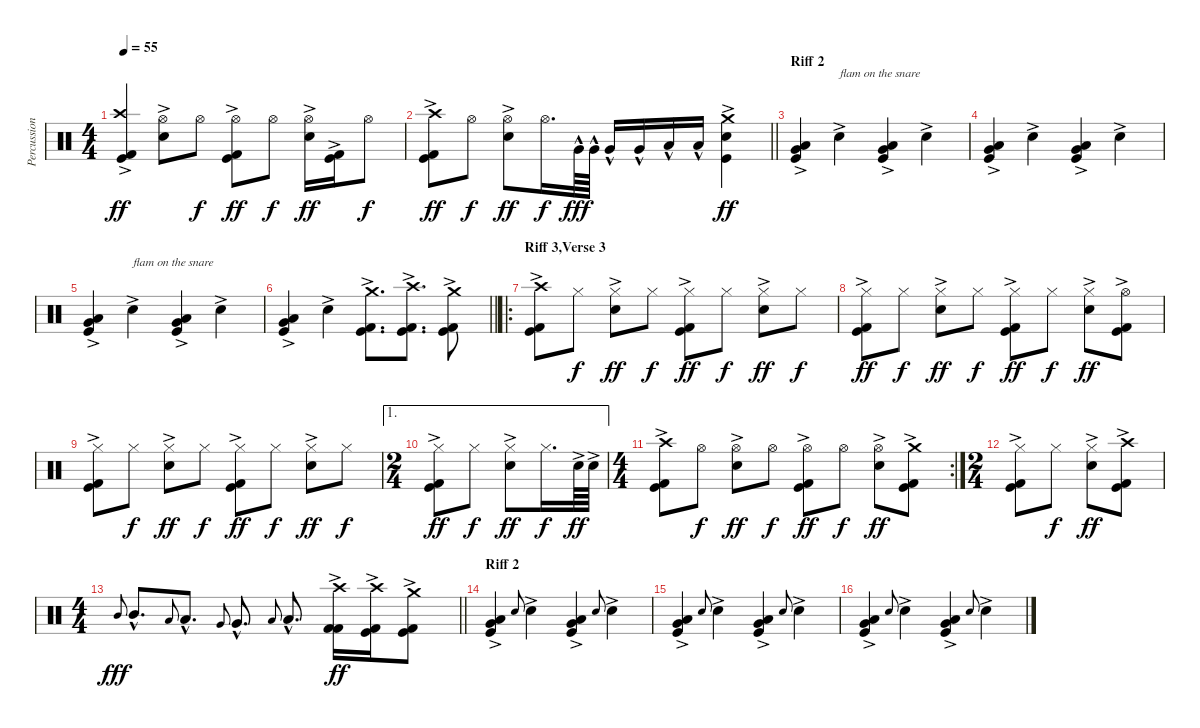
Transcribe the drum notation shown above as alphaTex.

\track ("Percussion" "Percussion") {instrument percussion}
\staff {score}
\articulation defaults
\ts (4 4)
\tempo 55
\clef neutral
\ks c
("Kick (hit)"{ac} "Crash high (hit)" "Kick (hit) 2"{ac}).4{dy ff} ("Snare (hit) 2"{ac} "Hi-Hat (open)").8 "Hi-Hat (open)".8{dy f} ("Kick (hit)"{ac} "Hi-Hat (open)" "Kick (hit) 2"{ac}).8{dy ff} "Hi-Hat (open)".8{dy f} ("Snare (hit) 2"{ac} "Hi-Hat (open)").16{dy ff} ("Kick (hit)"{ac} "Kick (hit) 2"{ac}).16 "Hi-Hat (open)".8{dy f} |
\barLineRight lightlight
("Kick (hit)"{ac} "Crash high (hit)" "Kick (hit) 2"{ac}).8{dy ff} "Hi-Hat (open)".8{dy f} ("Snare (hit) 2"{ac} "Hi-Hat (open)").8{dy ff} "Hi-Hat (open)".16{d dy f} "Very Low Tom (hit)"{hac}.64{dy fff} "Very Low Tom (hit)"{hac}.64 "Very Low Tom (hit)"{hac}.16 "Very Low Tom (hit)"{hac}.16 "Low Tom (hit)"{hac}.16 "Low Tom (hit)"{hac}.16 ("Kick (hit)"{ac} "Crash medium (hit)" "Snare (hit) 2"{ac}).4{dy ff} |
\section ("" "Riff 2")
("Low Floor Tom (hit)"{ac} "Very Low Tom (hit)"{ac} "Kick (hit)"{ac}).4 "Snare (hit) 2"{ac}.4{txt "flam on the snare"} ("Low Floor Tom (hit)"{ac} "Very Low Tom (hit)"{ac} "Kick (hit)"{ac}).4 "Snare (hit) 2"{ac}.4 |
("Low Floor Tom (hit)"{ac} "Very Low Tom (hit)"{ac} "Kick (hit)"{ac}).4 "Snare (hit) 2"{ac}.4 ("Low Floor Tom (hit)"{ac} "Very Low Tom (hit)"{ac} "Kick (hit)"{ac}).4 "Snare (hit) 2"{ac}.4 |
("Low Floor Tom (hit)"{ac} "Very Low Tom (hit)"{ac} "Kick (hit)"{ac}).4 "Snare (hit) 2"{ac}.4{txt "flam on the snare"} ("Low Floor Tom (hit)"{ac} "Very Low Tom (hit)"{ac} "Kick (hit)"{ac}).4 "Snare (hit) 2"{ac}.4 |
\barLineRight lightlight
("Low Floor Tom (hit)"{ac} "Very Low Tom (hit)"{ac} "Kick (hit)"{ac}).4 "Snare (hit) 2"{ac}.4 ("Crash medium (hit)" "Kick (hit)"{ac} "Kick (hit) 2"{ac}).8{d} ("Crash high (hit)" "Kick (hit)"{ac} "Kick (hit) 2"{ac}).8{d} ("Crash medium (hit)" "Kick (hit)"{ac} "Kick (hit) 2"{ac}).8 |
\ro
\section ("" "Riff 3,Verse 3")
("Kick (hit)"{ac} "Kick (hit) 2"{ac} "Crash high (hit)").8 "Hi-Hat (closed)".8{dy f} ("Snare (hit) 2"{ac} "Hi-Hat (closed)").8{dy ff} "Hi-Hat (closed)".8{dy f} ("Kick (hit)"{ac} "Kick (hit) 2"{ac} "Hi-Hat (closed)").8{dy ff} "Hi-Hat (closed)".8{dy f} ("Snare (hit) 2"{ac} "Hi-Hat (closed)").8{dy ff} "Hi-Hat (closed)".8{dy f} |
("Kick (hit)"{ac} "Kick (hit) 2"{ac} "Hi-Hat (closed)").8{dy ff} "Hi-Hat (closed)".8{dy f} ("Snare (hit) 2"{ac} "Hi-Hat (closed)").8{dy ff} "Hi-Hat (closed)".8{dy f} ("Kick (hit)"{ac} "Kick (hit) 2"{ac} "Hi-Hat (closed)").8{dy ff} "Hi-Hat (closed)".8{dy f} ("Snare (hit) 2"{ac} "Hi-Hat (closed)").8{dy ff} ("Kick (hit)"{ac} "Kick (hit) 2"{ac} "Hi-Hat (open)").8 |
("Kick (hit)"{ac} "Kick (hit) 2"{ac} "Hi-Hat (closed)").8 "Hi-Hat (closed)".8{dy f} ("Snare (hit) 2"{ac} "Hi-Hat (closed)").8{dy ff} "Hi-Hat (closed)".8{dy f} ("Kick (hit)"{ac} "Kick (hit) 2"{ac} "Hi-Hat (closed)").8{dy ff} "Hi-Hat (closed)".8{dy f} ("Snare (hit) 2"{ac} "Hi-Hat (closed)").8{dy ff} "Hi-Hat (closed)".8{dy f} |
\ae 1
\ts (2 4)
("Kick (hit)"{ac} "Kick (hit) 2"{ac} "Hi-Hat (closed)").8{dy ff} "Hi-Hat (closed)".8{dy f} ("Snare (hit) 2"{ac} "Hi-Hat (closed)").8{dy ff} "Hi-Hat (closed)".16{d dy f} "Snare (hit) 2"{ac}.64{dy ff} "Snare (hit) 2"{ac}.64 |
\rc 2
\ts (4 4)
("Kick (hit)"{ac} "Kick (hit) 2"{ac} "Crash high (hit)").8 "Hi-Hat (open)".8{dy f} ("Snare (hit) 2"{ac} "Hi-Hat (open)").8{dy ff} "Hi-Hat (open)".8{dy f} ("Kick (hit) 2"{ac} "Kick (hit)"{ac} "Hi-Hat (open)").8{dy ff} "Hi-Hat (open)".8{dy f} ("Snare (hit) 2"{ac} "Hi-Hat (open)").8{dy ff} ("Kick (hit)"{ac} "Kick (hit) 2"{ac} "Crash medium (hit)").8 |
\ts (2 4)
("Kick (hit)"{ac} "Kick (hit) 2"{ac} "Hi-Hat (closed)").8 "Hi-Hat (closed)".8{dy f} ("Snare (hit) 2"{ac} "Hi-Hat (closed)").8{dy ff} ("Crash high (hit)" "Kick (hit)"{ac} "Kick (hit) 2"{ac}).8 |
\ts (4 4)
\barLineRight lightlight "Mid Tom (hit)".8{gr onbeat dy fff} "Mid Tom (hit)"{hac}.8{d} "Low Tom (hit)".8{gr onbeat} "Low Tom (hit)"{hac}.8{d} "Very Low Tom (hit)".8{gr onbeat} "Very Low Tom (hit)"{hac}.8{d} "Low Floor Tom (hit)".8{gr onbeat} "Low Floor Tom (hit)"{hac}.8{d}
("Kick (hit) 2"{ac} "Kick (hit) 2"{ac} "Crash high (hit)").16{dy ff} ("Kick (hit) 2"{ac} "Kick (hit)"{ac} "Crash high (hit)").16 ("Kick (hit) 2"{ac} "Kick (hit)"{ac} "Crash medium (hit)").8 |
\section ("" "Riff 2")
("Low Floor Tom (hit)"{ac} "Very Low Tom (hit)"{ac} "Kick (hit)"{ac}).4 "Snare (hit) 2"{h}.8{gr onbeat} "Snare (hit) 2"{ac}.4 ("Low Floor Tom (hit)"{ac} "Very Low Tom (hit)"{ac} "Kick (hit)"{ac}).4 "Snare (hit) 2".8{gr onbeat} "Snare (hit) 2"{ac}.4 |
("Low Floor Tom (hit)"{ac} "Very Low Tom (hit)"{ac} "Kick (hit)"{ac}).4 "Snare (hit) 2".8{gr onbeat} "Snare (hit) 2"{ac}.4 ("Low Floor Tom (hit)"{ac} "Very Low Tom (hit)"{ac} "Kick (hit)"{ac}).4 "Snare (hit) 2".8{gr onbeat} "Snare (hit) 2"{ac}.4 |
("Low Floor Tom (hit)"{ac} "Very Low Tom (hit)"{ac} "Kick (hit)"{ac}).4 "Snare (hit) 2"{h}.8{gr onbeat} "Snare (hit) 2"{ac}.4 ("Low Floor Tom (hit)"{ac} "Very Low Tom (hit)"{ac} "Kick (hit)"{ac}).4 "Snare (hit) 2".8{gr onbeat} "Snare (hit) 2"{ac}.4
